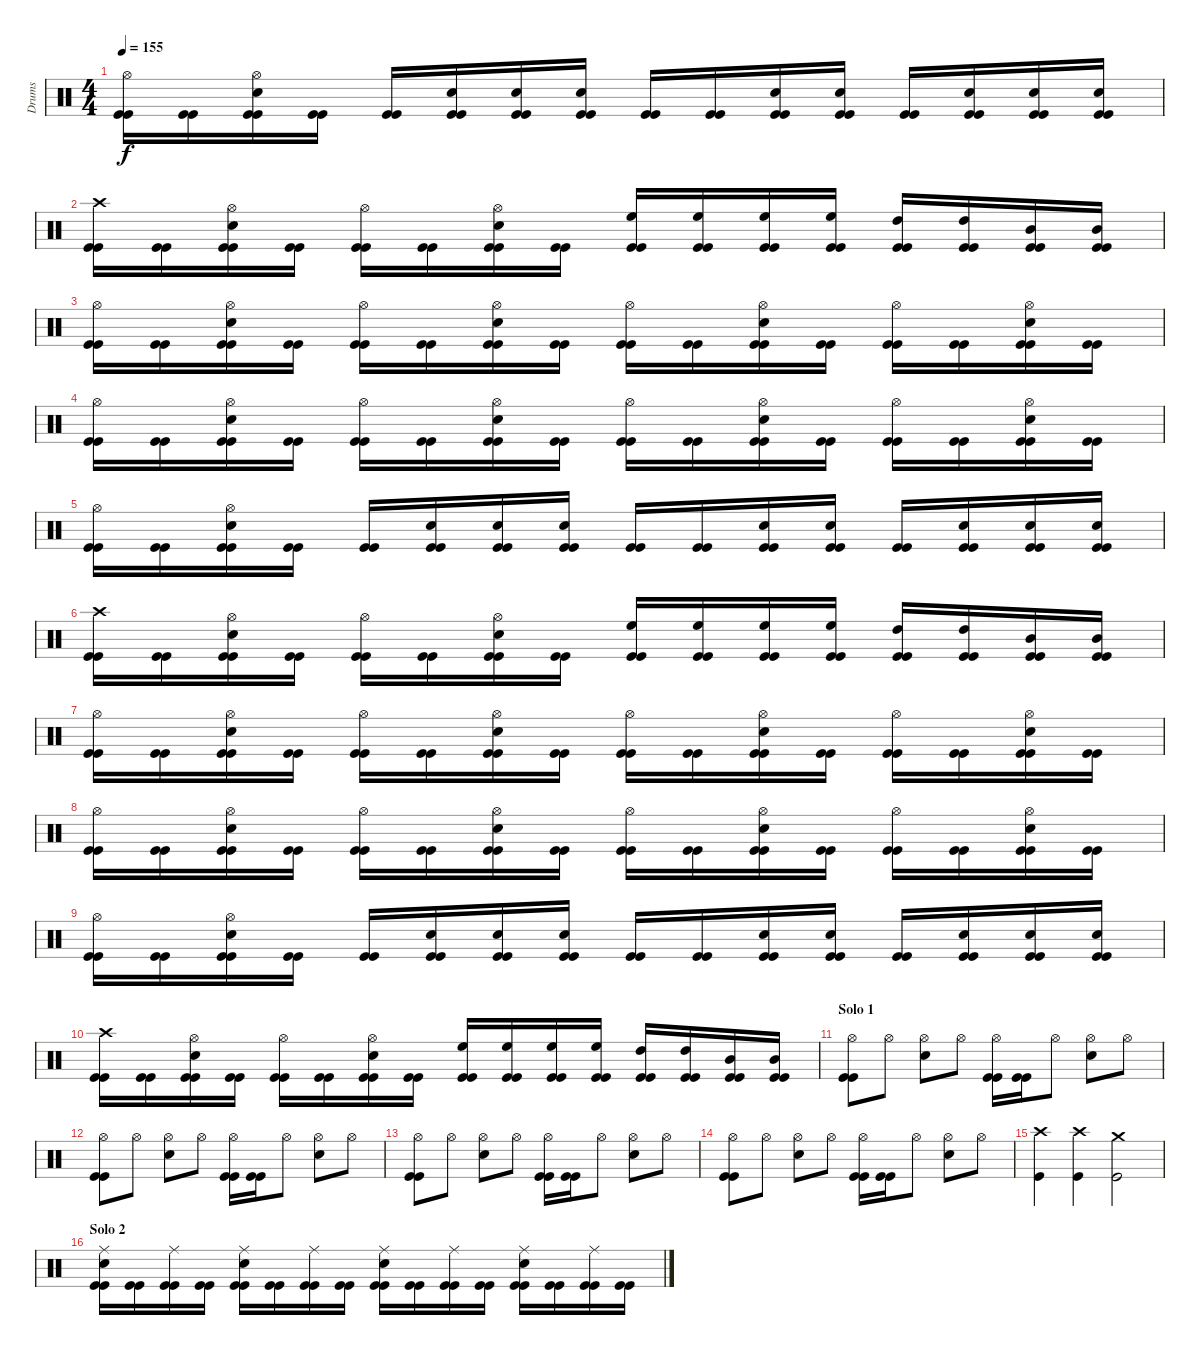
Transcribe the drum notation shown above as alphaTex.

\track ("Drums" "Drums") {instrument percussion}
\staff {score}
\articulation defaults
\ts (4 4)
\tempo 155
\clef neutral
\ks c
("Hi-Hat (open)" "Kick (hit)" "Kick (hit)").16{dy f} ("Kick (hit)" "Kick (hit)").16 ("Hi-Hat (open)" "Electric Snare (hit)" "Kick (hit)" "Kick (hit)").16 ("Kick (hit)" "Kick (hit)").16 ("Kick (hit)" "Kick (hit)").16 ("Electric Snare (hit)" "Kick (hit)" "Kick (hit)").16 ("Electric Snare (hit)" "Kick (hit)" "Kick (hit)").16 ("Electric Snare (hit)" "Kick (hit)" "Kick (hit)").16 ("Kick (hit)" "Kick (hit)").16 ("Kick (hit)" "Kick (hit)").16 ("Electric Snare (hit)" "Kick (hit)" "Kick (hit)").16 ("Electric Snare (hit)" "Kick (hit)" "Kick (hit)").16 ("Kick (hit)" "Kick (hit)").16 ("Electric Snare (hit)" "Kick (hit)" "Kick (hit)").16 ("Electric Snare (hit)" "Kick (hit)" "Kick (hit)").16 ("Electric Snare (hit)" "Kick (hit)" "Kick (hit)").16 |
("Crash high (hit)" "Kick (hit)" "Kick (hit)").16 ("Kick (hit)" "Kick (hit)").16 ("Hi-Hat (open)" "Electric Snare (hit)" "Kick (hit)" "Kick (hit)").16 ("Kick (hit)" "Kick (hit)").16 ("Hi-Hat (open)" "Kick (hit)" "Kick (hit)").16 ("Kick (hit)" "Kick (hit)").16 ("Hi-Hat (open)" "Electric Snare (hit)" "Kick (hit)" "Kick (hit)").16 ("Kick (hit)" "Kick (hit)").16 ("High Floor Tom (hit)" "Kick (hit)" "Kick (hit)").16 ("High Floor Tom (hit)" "Kick (hit)" "Kick (hit)").16 ("High Floor Tom (hit)" "Kick (hit)" "Kick (hit)").16 ("High Floor Tom (hit)" "Kick (hit)" "Kick (hit)").16 ("High Tom (hit)" "Kick (hit)" "Kick (hit)").16 ("High Tom (hit)" "Kick (hit)" "Kick (hit)").16 ("Mid Tom (hit)" "Kick (hit)" "Kick (hit)").16 ("Mid Tom (hit)" "Kick (hit)" "Kick (hit)").16 |
("Hi-Hat (open)" "Kick (hit)" "Kick (hit)").16 ("Kick (hit)" "Kick (hit)").16 ("Hi-Hat (open)" "Electric Snare (hit)" "Kick (hit)" "Kick (hit)").16 ("Kick (hit)" "Kick (hit)").16 ("Hi-Hat (open)" "Kick (hit)" "Kick (hit)").16 ("Kick (hit)" "Kick (hit)").16 ("Hi-Hat (open)" "Electric Snare (hit)" "Kick (hit)" "Kick (hit)").16 ("Kick (hit)" "Kick (hit)").16 ("Hi-Hat (open)" "Kick (hit)" "Kick (hit)").16 ("Kick (hit)" "Kick (hit)").16 ("Hi-Hat (open)" "Electric Snare (hit)" "Kick (hit)" "Kick (hit)").16 ("Kick (hit)" "Kick (hit)").16 ("Hi-Hat (open)" "Kick (hit)" "Kick (hit)").16 ("Kick (hit)" "Kick (hit)").16 ("Hi-Hat (open)" "Electric Snare (hit)" "Kick (hit)" "Kick (hit)").16 ("Kick (hit)" "Kick (hit)").16 |
("Hi-Hat (open)" "Kick (hit)" "Kick (hit)").16 ("Kick (hit)" "Kick (hit)").16 ("Hi-Hat (open)" "Electric Snare (hit)" "Kick (hit)" "Kick (hit)").16 ("Kick (hit)" "Kick (hit)").16 ("Hi-Hat (open)" "Kick (hit)" "Kick (hit)").16 ("Kick (hit)" "Kick (hit)").16 ("Hi-Hat (open)" "Electric Snare (hit)" "Kick (hit)" "Kick (hit)").16 ("Kick (hit)" "Kick (hit)").16 ("Hi-Hat (open)" "Kick (hit)" "Kick (hit)").16 ("Kick (hit)" "Kick (hit)").16 ("Hi-Hat (open)" "Electric Snare (hit)" "Kick (hit)" "Kick (hit)").16 ("Kick (hit)" "Kick (hit)").16 ("Hi-Hat (open)" "Kick (hit)" "Kick (hit)").16 ("Kick (hit)" "Kick (hit)").16 ("Hi-Hat (open)" "Electric Snare (hit)" "Kick (hit)" "Kick (hit)").16 ("Kick (hit)" "Kick (hit)").16 |
("Hi-Hat (open)" "Kick (hit)" "Kick (hit)").16 ("Kick (hit)" "Kick (hit)").16 ("Hi-Hat (open)" "Electric Snare (hit)" "Kick (hit)" "Kick (hit)").16 ("Kick (hit)" "Kick (hit)").16 ("Kick (hit)" "Kick (hit)").16 ("Electric Snare (hit)" "Kick (hit)" "Kick (hit)").16 ("Electric Snare (hit)" "Kick (hit)" "Kick (hit)").16 ("Electric Snare (hit)" "Kick (hit)" "Kick (hit)").16 ("Kick (hit)" "Kick (hit)").16 ("Kick (hit)" "Kick (hit)").16 ("Electric Snare (hit)" "Kick (hit)" "Kick (hit)").16 ("Electric Snare (hit)" "Kick (hit)" "Kick (hit)").16 ("Kick (hit)" "Kick (hit)").16 ("Electric Snare (hit)" "Kick (hit)" "Kick (hit)").16 ("Electric Snare (hit)" "Kick (hit)" "Kick (hit)").16 ("Electric Snare (hit)" "Kick (hit)" "Kick (hit)").16 |
("Crash high (hit)" "Kick (hit)" "Kick (hit)").16 ("Kick (hit)" "Kick (hit)").16 ("Hi-Hat (open)" "Electric Snare (hit)" "Kick (hit)" "Kick (hit)").16 ("Kick (hit)" "Kick (hit)").16 ("Hi-Hat (open)" "Kick (hit)" "Kick (hit)").16 ("Kick (hit)" "Kick (hit)").16 ("Hi-Hat (open)" "Electric Snare (hit)" "Kick (hit)" "Kick (hit)").16 ("Kick (hit)" "Kick (hit)").16 ("High Floor Tom (hit)" "Kick (hit)" "Kick (hit)").16 ("High Floor Tom (hit)" "Kick (hit)" "Kick (hit)").16 ("High Floor Tom (hit)" "Kick (hit)" "Kick (hit)").16 ("High Floor Tom (hit)" "Kick (hit)" "Kick (hit)").16 ("High Tom (hit)" "Kick (hit)" "Kick (hit)").16 ("High Tom (hit)" "Kick (hit)" "Kick (hit)").16 ("Mid Tom (hit)" "Kick (hit)" "Kick (hit)").16 ("Mid Tom (hit)" "Kick (hit)" "Kick (hit)").16 |
("Hi-Hat (open)" "Kick (hit)" "Kick (hit)").16 ("Kick (hit)" "Kick (hit)").16 ("Hi-Hat (open)" "Electric Snare (hit)" "Kick (hit)" "Kick (hit)").16 ("Kick (hit)" "Kick (hit)").16 ("Hi-Hat (open)" "Kick (hit)" "Kick (hit)").16 ("Kick (hit)" "Kick (hit)").16 ("Hi-Hat (open)" "Electric Snare (hit)" "Kick (hit)" "Kick (hit)").16 ("Kick (hit)" "Kick (hit)").16 ("Hi-Hat (open)" "Kick (hit)" "Kick (hit)").16 ("Kick (hit)" "Kick (hit)").16 ("Hi-Hat (open)" "Electric Snare (hit)" "Kick (hit)" "Kick (hit)").16 ("Kick (hit)" "Kick (hit)").16 ("Hi-Hat (open)" "Kick (hit)" "Kick (hit)").16 ("Kick (hit)" "Kick (hit)").16 ("Hi-Hat (open)" "Electric Snare (hit)" "Kick (hit)" "Kick (hit)").16 ("Kick (hit)" "Kick (hit)").16 |
("Hi-Hat (open)" "Kick (hit)" "Kick (hit)").16 ("Kick (hit)" "Kick (hit)").16 ("Hi-Hat (open)" "Electric Snare (hit)" "Kick (hit)" "Kick (hit)").16 ("Kick (hit)" "Kick (hit)").16 ("Hi-Hat (open)" "Kick (hit)" "Kick (hit)").16 ("Kick (hit)" "Kick (hit)").16 ("Hi-Hat (open)" "Electric Snare (hit)" "Kick (hit)" "Kick (hit)").16 ("Kick (hit)" "Kick (hit)").16 ("Hi-Hat (open)" "Kick (hit)" "Kick (hit)").16 ("Kick (hit)" "Kick (hit)").16 ("Hi-Hat (open)" "Electric Snare (hit)" "Kick (hit)" "Kick (hit)").16 ("Kick (hit)" "Kick (hit)").16 ("Hi-Hat (open)" "Kick (hit)" "Kick (hit)").16 ("Kick (hit)" "Kick (hit)").16 ("Hi-Hat (open)" "Electric Snare (hit)" "Kick (hit)" "Kick (hit)").16 ("Kick (hit)" "Kick (hit)").16 |
("Hi-Hat (open)" "Kick (hit)" "Kick (hit)").16 ("Kick (hit)" "Kick (hit)").16 ("Hi-Hat (open)" "Electric Snare (hit)" "Kick (hit)" "Kick (hit)").16 ("Kick (hit)" "Kick (hit)").16 ("Kick (hit)" "Kick (hit)").16 ("Electric Snare (hit)" "Kick (hit)" "Kick (hit)").16 ("Electric Snare (hit)" "Kick (hit)" "Kick (hit)").16 ("Electric Snare (hit)" "Kick (hit)" "Kick (hit)").16 ("Kick (hit)" "Kick (hit)").16 ("Kick (hit)" "Kick (hit)").16 ("Electric Snare (hit)" "Kick (hit)" "Kick (hit)").16 ("Electric Snare (hit)" "Kick (hit)" "Kick (hit)").16 ("Kick (hit)" "Kick (hit)").16 ("Electric Snare (hit)" "Kick (hit)" "Kick (hit)").16 ("Electric Snare (hit)" "Kick (hit)" "Kick (hit)").16 ("Electric Snare (hit)" "Kick (hit)" "Kick (hit)").16 |
("Crash high (hit)" "Kick (hit)" "Kick (hit)").16 ("Kick (hit)" "Kick (hit)").16 ("Hi-Hat (open)" "Electric Snare (hit)" "Kick (hit)" "Kick (hit)").16 ("Kick (hit)" "Kick (hit)").16 ("Hi-Hat (open)" "Kick (hit)" "Kick (hit)").16 ("Kick (hit)" "Kick (hit)").16 ("Hi-Hat (open)" "Electric Snare (hit)" "Kick (hit)" "Kick (hit)").16 ("Kick (hit)" "Kick (hit)").16 ("High Floor Tom (hit)" "Kick (hit)" "Kick (hit)").16 ("High Floor Tom (hit)" "Kick (hit)" "Kick (hit)").16 ("High Floor Tom (hit)" "Kick (hit)" "Kick (hit)").16 ("High Floor Tom (hit)" "Kick (hit)" "Kick (hit)").16 ("High Tom (hit)" "Kick (hit)" "Kick (hit)").16 ("High Tom (hit)" "Kick (hit)" "Kick (hit)").16 ("Mid Tom (hit)" "Kick (hit)" "Kick (hit)").16 ("Mid Tom (hit)" "Kick (hit)" "Kick (hit)").16 |
\section ("" "Solo 1")
("Hi-Hat (open)" "Kick (hit)" "Kick (hit)").8 "Hi-Hat (open)".8 ("Hi-Hat (open)" "Snare (hit) 2").8 "Hi-Hat (open)".8 ("Hi-Hat (open)" "Kick (hit)" "Kick (hit)").16 ("Kick (hit)" "Kick (hit)").16 "Hi-Hat (open)".8 ("Hi-Hat (open)" "Snare (hit) 2").8 "Hi-Hat (open)".8 |
("Hi-Hat (open)" "Kick (hit)" "Kick (hit)").8 "Hi-Hat (open)".8 ("Hi-Hat (open)" "Snare (hit) 2").8 "Hi-Hat (open)".8 ("Hi-Hat (open)" "Kick (hit)" "Kick (hit)").16 ("Kick (hit)" "Kick (hit)").16 "Hi-Hat (open)".8 ("Hi-Hat (open)" "Snare (hit) 2").8 "Hi-Hat (open)".8 |
("Hi-Hat (open)" "Kick (hit)" "Kick (hit)").8 "Hi-Hat (open)".8 ("Hi-Hat (open)" "Snare (hit) 2").8 "Hi-Hat (open)".8 ("Hi-Hat (open)" "Kick (hit)" "Kick (hit)").16 ("Kick (hit)" "Kick (hit)").16 "Hi-Hat (open)".8 ("Hi-Hat (open)" "Snare (hit) 2").8 "Hi-Hat (open)".8 |
("Hi-Hat (open)" "Kick (hit)" "Kick (hit)").8 "Hi-Hat (open)".8 ("Hi-Hat (open)" "Snare (hit) 2").8 "Hi-Hat (open)".8 ("Hi-Hat (open)" "Kick (hit)" "Kick (hit)").16 ("Kick (hit)" "Kick (hit)").16 "Hi-Hat (open)".8 ("Hi-Hat (open)" "Snare (hit) 2").8 "Hi-Hat (open)".8 |
("Crash high (hit)" "Kick (hit)").4 ("Crash high (hit)" "Kick (hit)").4 ("Crash medium (hit)" "Kick (hit)").2 |
\section ("" "Solo 2")
("Ride (middle)" "Electric Snare (hit)" "Kick (hit)" "Kick (hit)").16 ("Kick (hit)" "Kick (hit)").16 ("Ride (middle)" "Kick (hit)" "Kick (hit)").16 ("Kick (hit)" "Kick (hit)").16 ("Ride (middle)" "Electric Snare (hit)" "Kick (hit)" "Kick (hit)").16 ("Kick (hit)" "Kick (hit)").16 ("Ride (middle)" "Kick (hit)" "Kick (hit)").16 ("Kick (hit)" "Kick (hit)").16 ("Ride (middle)" "Electric Snare (hit)" "Kick (hit)" "Kick (hit)").16 ("Kick (hit)" "Kick (hit)").16 ("Ride (middle)" "Kick (hit)" "Kick (hit)").16 ("Kick (hit)" "Kick (hit)").16 ("Ride (middle)" "Electric Snare (hit)" "Kick (hit)" "Kick (hit)").16 ("Kick (hit)" "Kick (hit)").16 ("Ride (middle)" "Kick (hit)" "Kick (hit)").16 ("Kick (hit)" "Kick (hit)").16
